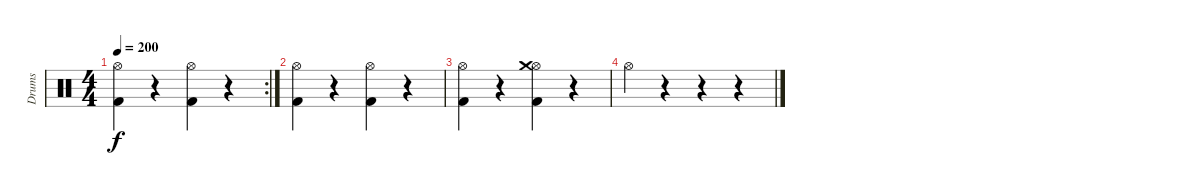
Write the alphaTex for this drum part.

\track ("Drums" "Drums") {instrument percussion}
\staff {score}
\articulation defaults
\rc 2
\ts (4 4)
\tempo 200
\clef neutral
\ks c
("Hi-Hat (open)" "Kick (hit) 2").4{dy f} r.4 ("Hi-Hat (open)" "Kick (hit) 2").4 r.4 |
("Hi-Hat (open)" "Kick (hit) 2").4 r.4 ("Hi-Hat (open)" "Kick (hit) 2").4 r.4 |
("Hi-Hat (open)" "Kick (hit) 2").4 r.4 ("Hi-Hat (open)" "Crash medium (hit)" "Kick (hit) 2").4 r.4 |
"Hi-Hat (open)".4 r.4 r.4 r.4
